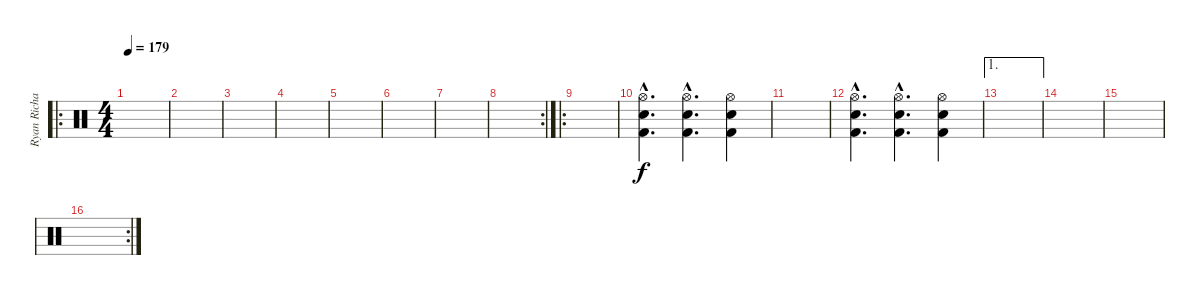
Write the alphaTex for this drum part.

\track ("Ryan Richards" "Ryan Richa") {instrument percussion}
\staff {score}
\articulation defaults
\ro
\ts (4 4)
\tempo 179
\clef neutral
\ks c
|
|
|
|
|
|
|
\rc 2
|
\ro
|
("Snare (hit) 2"{hac} "Kick (hit) 2"{hac} "Hi-Hat (open)"{hac}).4{d} ("Snare (hit) 2"{hac} "Kick (hit) 2"{hac} "Hi-Hat (open)"{hac}).4{d} ("Snare (hit) 2" "Kick (hit) 2" "Hi-Hat (open)").4 |
|
("Snare (hit) 2"{hac} "Kick (hit) 2"{hac} "Hi-Hat (open)"{hac}).4{d} ("Snare (hit) 2"{hac} "Kick (hit) 2"{hac} "Hi-Hat (open)"{hac}).4{d} ("Snare (hit) 2" "Kick (hit) 2" "Hi-Hat (open)").4 |
\ae 1
|
|
|
\rc 2
